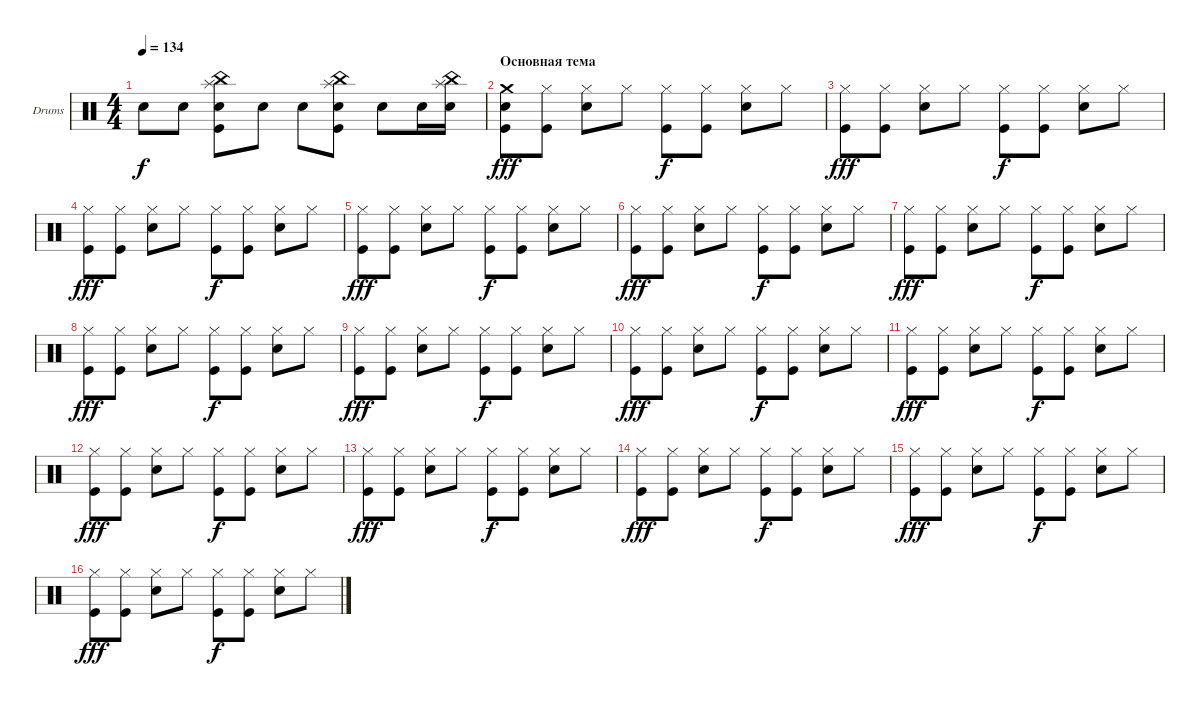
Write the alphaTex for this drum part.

\defaultSystemsLayout 4
\bracketExtendMode groupsimilarinstruments
\firstSystemTrackNameOrientation horizontal
\otherSystemsTrackNameOrientation horizontal
\track ("Drumkit" "Drums") {instrument percussion}
\staff {score}
\articulation defaults
\ts (4 4)
\tempo 134
\clef neutral
\ks c "Snare (hit) 2".8{dy f} "Snare (hit) 2".8
("Snare (hit) 2" "Kick (hit)" "Splash (hit)" "China (hit)").8 "Snare (hit) 2".8 "Snare (hit) 2".8 ("Snare (hit) 2" "Kick (hit)" "China (hit)" "Splash (hit)").8 "Snare (hit) 2".8 "Snare (hit) 2".16 ("Snare (hit) 2" "Splash (hit)" "China (hit)").16 |
\section ("" "Основная тема")
("Crash medium (hit)" "Kick (hit)" "Snare (hit) 2").8{dy fff} ("Hi-Hat (closed)" "Kick (hit)").8 ("Hi-Hat (closed)" "Snare (hit) 2").8 "Hi-Hat (closed)".8 ("Hi-Hat (closed)" "Kick (hit)").8{dy f} ("Hi-Hat (closed)" "Kick (hit)").8 ("Hi-Hat (closed)" "Snare (hit) 2").8 "Hi-Hat (closed)".8 |
("Hi-Hat (closed)" "Kick (hit)").8{dy fff} ("Hi-Hat (closed)" "Kick (hit)").8 ("Hi-Hat (closed)" "Snare (hit) 2").8 "Hi-Hat (closed)".8 ("Hi-Hat (closed)" "Kick (hit)").8{dy f} ("Hi-Hat (closed)" "Kick (hit)").8 ("Hi-Hat (closed)" "Snare (hit) 2").8 "Hi-Hat (closed)".8 |
("Hi-Hat (closed)" "Kick (hit)").8{dy fff} ("Hi-Hat (closed)" "Kick (hit)").8 ("Hi-Hat (closed)" "Snare (hit) 2").8 "Hi-Hat (closed)".8 ("Hi-Hat (closed)" "Kick (hit)").8{dy f} ("Hi-Hat (closed)" "Kick (hit)").8 ("Hi-Hat (closed)" "Snare (hit) 2").8 "Hi-Hat (closed)".8 |
("Hi-Hat (closed)" "Kick (hit)").8{dy fff} ("Hi-Hat (closed)" "Kick (hit)").8 ("Hi-Hat (closed)" "Snare (hit) 2").8 "Hi-Hat (closed)".8 ("Hi-Hat (closed)" "Kick (hit)").8{dy f} ("Hi-Hat (closed)" "Kick (hit)").8 ("Hi-Hat (closed)" "Snare (hit) 2").8 "Hi-Hat (closed)".8 |
("Hi-Hat (closed)" "Kick (hit)").8{dy fff} ("Hi-Hat (closed)" "Kick (hit)").8 ("Hi-Hat (closed)" "Snare (hit) 2").8 "Hi-Hat (closed)".8 ("Hi-Hat (closed)" "Kick (hit)").8{dy f} ("Hi-Hat (closed)" "Kick (hit)").8 ("Hi-Hat (closed)" "Snare (hit) 2").8 "Hi-Hat (closed)".8 |
("Hi-Hat (closed)" "Kick (hit)").8{dy fff} ("Hi-Hat (closed)" "Kick (hit)").8 ("Hi-Hat (closed)" "Snare (hit) 2").8 "Hi-Hat (closed)".8 ("Hi-Hat (closed)" "Kick (hit)").8{dy f} ("Hi-Hat (closed)" "Kick (hit)").8 ("Hi-Hat (closed)" "Snare (hit) 2").8 "Hi-Hat (closed)".8 |
("Hi-Hat (closed)" "Kick (hit)").8{dy fff} ("Hi-Hat (closed)" "Kick (hit)").8 ("Hi-Hat (closed)" "Snare (hit) 2").8 "Hi-Hat (closed)".8 ("Hi-Hat (closed)" "Kick (hit)").8{dy f} ("Hi-Hat (closed)" "Kick (hit)").8 ("Hi-Hat (closed)" "Snare (hit) 2").8 "Hi-Hat (closed)".8 |
("Hi-Hat (closed)" "Kick (hit)").8{dy fff} ("Hi-Hat (closed)" "Kick (hit)").8 ("Hi-Hat (closed)" "Snare (hit) 2").8 "Hi-Hat (closed)".8 ("Hi-Hat (closed)" "Kick (hit)").8{dy f} ("Hi-Hat (closed)" "Kick (hit)").8 ("Hi-Hat (closed)" "Snare (hit) 2").8 "Hi-Hat (closed)".8 |
("Hi-Hat (closed)" "Kick (hit)").8{dy fff} ("Hi-Hat (closed)" "Kick (hit)").8 ("Hi-Hat (closed)" "Snare (hit) 2").8 "Hi-Hat (closed)".8 ("Hi-Hat (closed)" "Kick (hit)").8{dy f} ("Hi-Hat (closed)" "Kick (hit)").8 ("Hi-Hat (closed)" "Snare (hit) 2").8 "Hi-Hat (closed)".8 |
("Hi-Hat (closed)" "Kick (hit)").8{dy fff} ("Hi-Hat (closed)" "Kick (hit)").8 ("Hi-Hat (closed)" "Snare (hit) 2").8 "Hi-Hat (closed)".8 ("Hi-Hat (closed)" "Kick (hit)").8{dy f} ("Hi-Hat (closed)" "Kick (hit)").8 ("Hi-Hat (closed)" "Snare (hit) 2").8 "Hi-Hat (closed)".8 |
("Hi-Hat (closed)" "Kick (hit)").8{dy fff} ("Hi-Hat (closed)" "Kick (hit)").8 ("Hi-Hat (closed)" "Snare (hit) 2").8 "Hi-Hat (closed)".8 ("Hi-Hat (closed)" "Kick (hit)").8{dy f} ("Hi-Hat (closed)" "Kick (hit)").8 ("Hi-Hat (closed)" "Snare (hit) 2").8 "Hi-Hat (closed)".8 |
("Hi-Hat (closed)" "Kick (hit)").8{dy fff} ("Hi-Hat (closed)" "Kick (hit)").8 ("Hi-Hat (closed)" "Snare (hit) 2").8 "Hi-Hat (closed)".8 ("Hi-Hat (closed)" "Kick (hit)").8{dy f} ("Hi-Hat (closed)" "Kick (hit)").8 ("Hi-Hat (closed)" "Snare (hit) 2").8 "Hi-Hat (closed)".8 |
("Hi-Hat (closed)" "Kick (hit)").8{dy fff} ("Hi-Hat (closed)" "Kick (hit)").8 ("Hi-Hat (closed)" "Snare (hit) 2").8 "Hi-Hat (closed)".8 ("Hi-Hat (closed)" "Kick (hit)").8{dy f} ("Hi-Hat (closed)" "Kick (hit)").8 ("Hi-Hat (closed)" "Snare (hit) 2").8 "Hi-Hat (closed)".8 |
("Hi-Hat (closed)" "Kick (hit)").8{dy fff} ("Hi-Hat (closed)" "Kick (hit)").8 ("Hi-Hat (closed)" "Snare (hit) 2").8 "Hi-Hat (closed)".8 ("Hi-Hat (closed)" "Kick (hit)").8{dy f} ("Hi-Hat (closed)" "Kick (hit)").8 ("Hi-Hat (closed)" "Snare (hit) 2").8 "Hi-Hat (closed)".8 |
("Hi-Hat (closed)" "Kick (hit)").8{dy fff} ("Hi-Hat (closed)" "Kick (hit)").8 ("Hi-Hat (closed)" "Snare (hit) 2").8 "Hi-Hat (closed)".8 ("Hi-Hat (closed)" "Kick (hit)").8{dy f} ("Hi-Hat (closed)" "Kick (hit)").8 ("Hi-Hat (closed)" "Snare (hit) 2").8 "Hi-Hat (closed)".8
